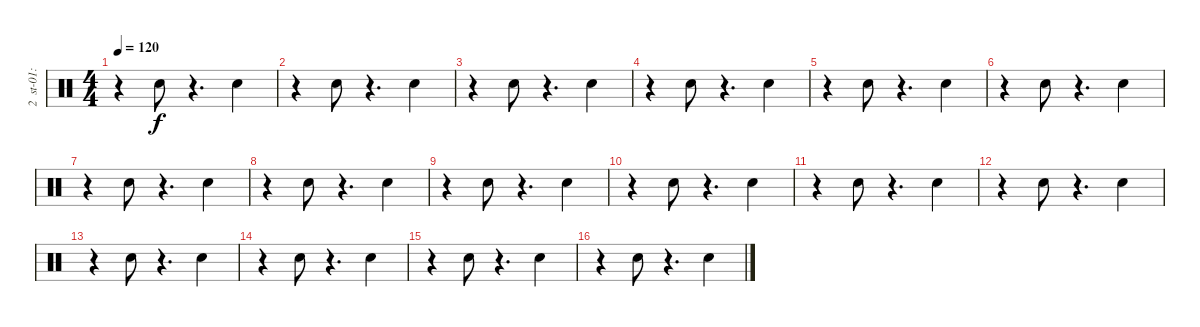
\track (" 2  st-01:popsnare2" " 2  st-01:") {instrument percussion}
\staff {score}
\articulation defaults
\ts (4 4)
\tempo 120
\clef neutral
\ks c
r.4{dy f} "Snare (hit) 2".8 r.4{d} "Snare (hit) 2".4 |
r.4 "Snare (hit) 2".8 r.4{d} "Snare (hit) 2".4 |
r.4 "Snare (hit) 2".8 r.4{d} "Snare (hit) 2".4 |
r.4 "Snare (hit) 2".8 r.4{d} "Snare (hit) 2".4 |
r.4 "Snare (hit) 2".8 r.4{d} "Snare (hit) 2".4 |
r.4 "Snare (hit) 2".8 r.4{d} "Snare (hit) 2".4 |
r.4 "Snare (hit) 2".8 r.4{d} "Snare (hit) 2".4 |
r.4 "Snare (hit) 2".8 r.4{d} "Snare (hit) 2".4 |
r.4 "Snare (hit) 2".8 r.4{d} "Snare (hit) 2".4 |
r.4 "Snare (hit) 2".8 r.4{d} "Snare (hit) 2".4 |
r.4 "Snare (hit) 2".8 r.4{d} "Snare (hit) 2".4 |
r.4 "Snare (hit) 2".8 r.4{d} "Snare (hit) 2".4 |
r.4 "Snare (hit) 2".8 r.4{d} "Snare (hit) 2".4 |
r.4 "Snare (hit) 2".8 r.4{d} "Snare (hit) 2".4 |
r.4 "Snare (hit) 2".8 r.4{d} "Snare (hit) 2".4 |
r.4 "Snare (hit) 2".8 r.4{d} "Snare (hit) 2".4
